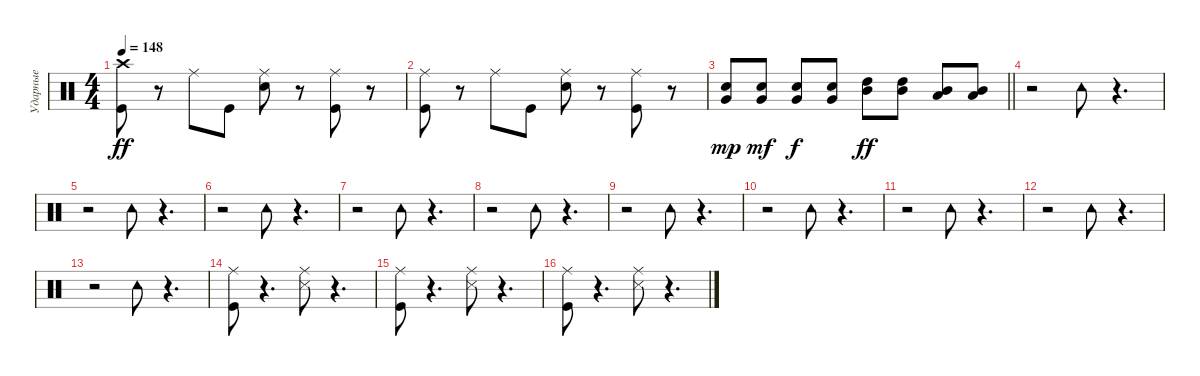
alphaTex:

\track ("Ударные" "Ударные") {instrument percussion}
\staff {score}
\articulation defaults
\ts (4 4)
\tempo 148
\clef neutral
\ks c
("Kick (hit)" "Crash high (hit)").8{dy ff} r.8 "Ride (middle)".8 "Kick (hit)".8 ("Snare (hit) 2" "Ride (middle)").8 r.8 ("Kick (hit)" "Ride (middle)").8 r.8 |
("Ride (middle)" "Kick (hit)").8 r.8 "Ride (middle)".8 "Kick (hit)".8 ("Snare (hit) 2" "Ride (middle)").8 r.8 ("Ride (middle)" "Kick (hit)").8 r.8 |
\barLineRight lightlight
("Very Low Tom (hit)" "Snare (hit) 2").8{dy mp} ("Very Low Tom (hit)" "Snare (hit) 2").8{dy mf} ("Very Low Tom (hit)" "Snare (hit) 2").8{dy f} ("Snare (hit) 2" "Very Low Tom (hit)").8 ("Mid Tom (hit)" "High Tom (hit)").8{dy ff} ("Mid Tom (hit)" "High Tom (hit)").8 ("Low Tom (hit)" "Mid Tom (hit)").8 ("Mid Tom (hit)" "Low Tom (hit)").8 |
r.2 "Tambourine (hit)".8 r.4{d} |
r.2 "Tambourine (hit)".8 r.4{d} |
r.2 "Tambourine (hit)".8 r.4{d} |
r.2 "Tambourine (hit)".8 r.4{d} |
r.2 "Tambourine (hit)".8 r.4{d} |
r.2 "Tambourine (hit)".8 r.4{d} |
r.2 "Tambourine (hit)".8 r.4{d} |
r.2 "Tambourine (hit)".8 r.4{d} |
r.2 "Tambourine (hit)".8 r.4{d} |
r.2 "Tambourine (hit)".8 r.4{d} |
("Ride (middle)" "Kick (hit)").8 r.4{d} ("Ride (middle)" "Snare (side stick) 3").8 r.4{d} |
("Ride (middle)" "Kick (hit)").8 r.4{d} ("Ride (middle)" "Snare (side stick) 3").8 r.4{d} |
("Ride (middle)" "Kick (hit)").8 r.4{d} ("Ride (middle)" "Snare (side stick) 3").8 r.4{d}
